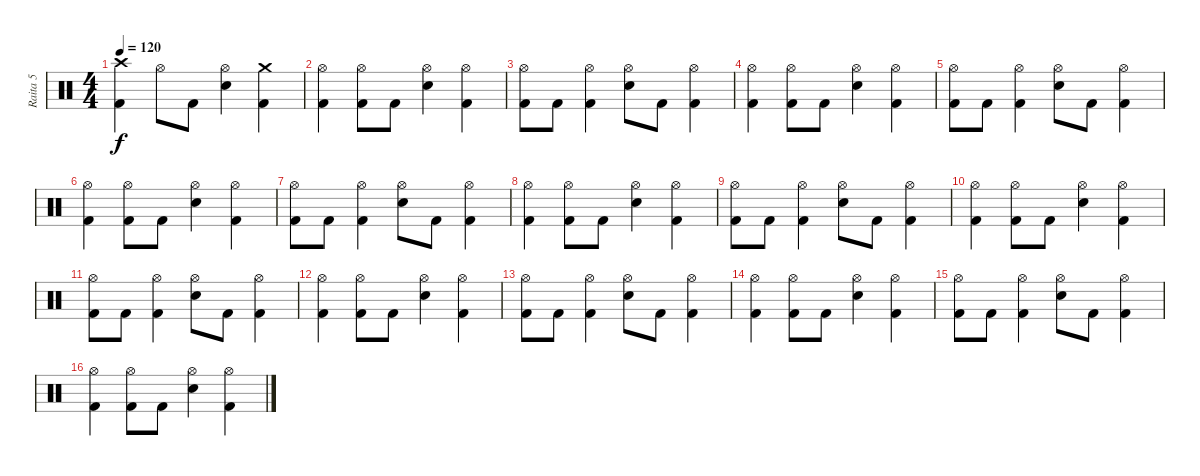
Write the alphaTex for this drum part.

\track ("Raita 5" "Raita 5") {instrument percussion}
\staff {score}
\articulation defaults
\ts (4 4)
\tempo 120
\clef neutral
\ks c
("Crash high (hit)" "Kick (hit) 2").4{dy f} "Hi-Hat (open)".8 "Kick (hit) 2".8 ("Hi-Hat (open)" "Snare (hit) 2").4 ("Crash medium (hit)" "Kick (hit) 2").4 |
("Hi-Hat (open)" "Kick (hit) 2").4 ("Hi-Hat (open)" "Kick (hit) 2").8 "Kick (hit) 2".8 ("Hi-Hat (open)" "Snare (hit) 2").4 ("Hi-Hat (open)" "Kick (hit) 2").4 |
("Hi-Hat (open)" "Kick (hit) 2").8 "Kick (hit) 2".8 ("Hi-Hat (open)" "Kick (hit) 2").4 ("Hi-Hat (open)" "Snare (hit) 2").8 "Kick (hit) 2".8 ("Hi-Hat (open)" "Kick (hit) 2").4 |
("Hi-Hat (open)" "Kick (hit) 2").4 ("Hi-Hat (open)" "Kick (hit) 2").8 "Kick (hit) 2".8 ("Hi-Hat (open)" "Snare (hit) 2").4 ("Hi-Hat (open)" "Kick (hit) 2").4 |
("Hi-Hat (open)" "Kick (hit) 2").8 "Kick (hit) 2".8 ("Hi-Hat (open)" "Kick (hit) 2").4 ("Hi-Hat (open)" "Snare (hit) 2").8 "Kick (hit) 2".8 ("Hi-Hat (open)" "Kick (hit) 2").4 |
("Hi-Hat (open)" "Kick (hit) 2").4 ("Hi-Hat (open)" "Kick (hit) 2").8 "Kick (hit) 2".8 ("Hi-Hat (open)" "Snare (hit) 2").4 ("Hi-Hat (open)" "Kick (hit) 2").4 |
("Hi-Hat (open)" "Kick (hit) 2").8 "Kick (hit) 2".8 ("Hi-Hat (open)" "Kick (hit) 2").4 ("Hi-Hat (open)" "Snare (hit) 2").8 "Kick (hit) 2".8 ("Hi-Hat (open)" "Kick (hit) 2").4 |
("Hi-Hat (open)" "Kick (hit) 2").4 ("Hi-Hat (open)" "Kick (hit) 2").8 "Kick (hit) 2".8 ("Hi-Hat (open)" "Snare (hit) 2").4 ("Hi-Hat (open)" "Kick (hit) 2").4 |
("Hi-Hat (open)" "Kick (hit) 2").8 "Kick (hit) 2".8 ("Hi-Hat (open)" "Kick (hit) 2").4 ("Hi-Hat (open)" "Snare (hit) 2").8 "Kick (hit) 2".8 ("Hi-Hat (open)" "Kick (hit) 2").4 |
("Hi-Hat (open)" "Kick (hit) 2").4 ("Hi-Hat (open)" "Kick (hit) 2").8 "Kick (hit) 2".8 ("Hi-Hat (open)" "Snare (hit) 2").4 ("Hi-Hat (open)" "Kick (hit) 2").4 |
("Hi-Hat (open)" "Kick (hit) 2").8 "Kick (hit) 2".8 ("Hi-Hat (open)" "Kick (hit) 2").4 ("Hi-Hat (open)" "Snare (hit) 2").8 "Kick (hit) 2".8 ("Hi-Hat (open)" "Kick (hit) 2").4 |
("Hi-Hat (open)" "Kick (hit) 2").4 ("Hi-Hat (open)" "Kick (hit) 2").8 "Kick (hit) 2".8 ("Hi-Hat (open)" "Snare (hit) 2").4 ("Hi-Hat (open)" "Kick (hit) 2").4 |
("Hi-Hat (open)" "Kick (hit) 2").8 "Kick (hit) 2".8 ("Hi-Hat (open)" "Kick (hit) 2").4 ("Hi-Hat (open)" "Snare (hit) 2").8 "Kick (hit) 2".8 ("Hi-Hat (open)" "Kick (hit) 2").4 |
("Hi-Hat (open)" "Kick (hit) 2").4 ("Hi-Hat (open)" "Kick (hit) 2").8 "Kick (hit) 2".8 ("Hi-Hat (open)" "Snare (hit) 2").4 ("Hi-Hat (open)" "Kick (hit) 2").4 |
("Hi-Hat (open)" "Kick (hit) 2").8 "Kick (hit) 2".8 ("Hi-Hat (open)" "Kick (hit) 2").4 ("Hi-Hat (open)" "Snare (hit) 2").8 "Kick (hit) 2".8 ("Hi-Hat (open)" "Kick (hit) 2").4 |
("Hi-Hat (open)" "Kick (hit) 2").4 ("Hi-Hat (open)" "Kick (hit) 2").8 "Kick (hit) 2".8 ("Hi-Hat (open)" "Snare (hit) 2").4 ("Hi-Hat (open)" "Kick (hit) 2").4
